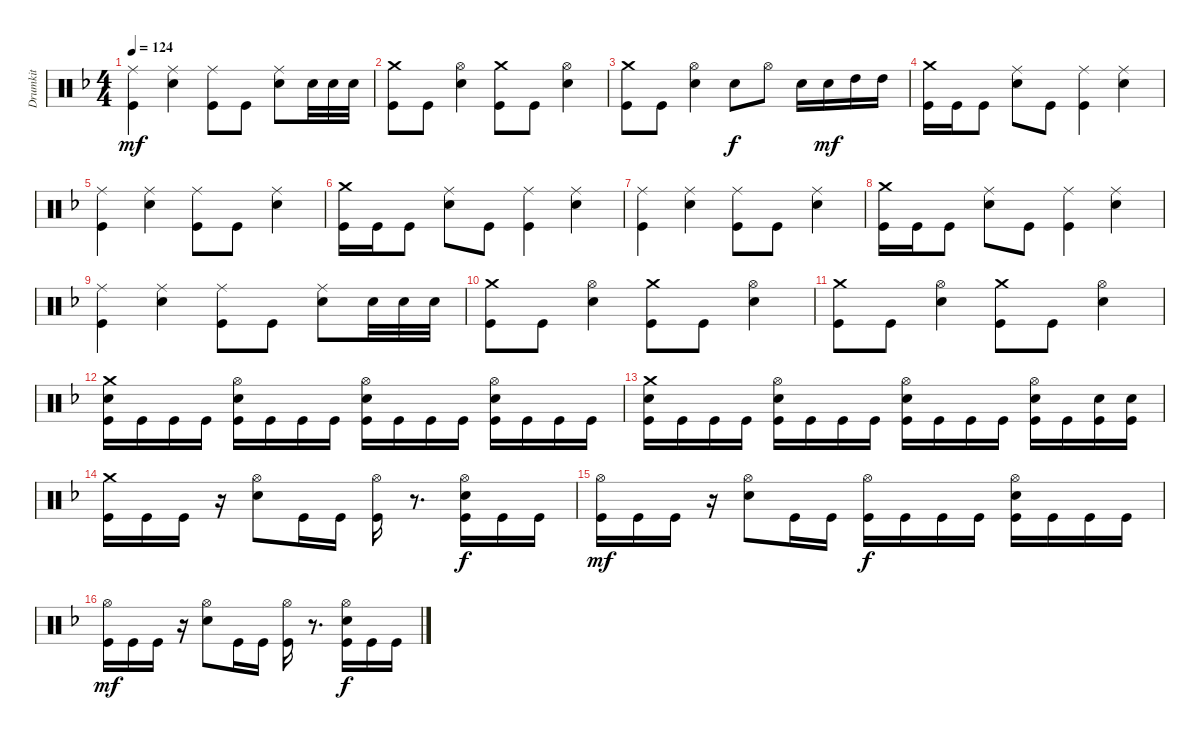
\track ("Drumkit" "Drumkit") {instrument percussion}
\staff {score}
\articulation defaults
\ts (4 4)
\tempo 124
\clef neutral
\ks dminor
("Kick (hit)" "Ride (middle)").4{dy mf} ("Snare (hit) 2" "Ride (middle)").4 ("Kick (hit)" "Ride (middle)").8 "Kick (hit)".8 ("Snare (hit) 2" "Ride (middle)").8 "Snare (hit) 2".32 "Snare (hit) 2".32 "Snare (hit) 2".32 |
("Kick (hit)" "Crash medium (hit)").8 "Kick (hit)".8 ("Snare (hit) 2" "Hi-Hat (open)").4 ("Kick (hit)" "Crash medium (hit)").8 "Kick (hit)".8 ("Snare (hit) 2" "Hi-Hat (open)").4 |
("Kick (hit)" "Crash medium (hit)").8 "Kick (hit)".8 ("Snare (hit) 2" "Hi-Hat (open)").4 "Snare (hit) 2".8{dy f} "Hi-Hat (open)".8 "Snare (hit) 2".16 "Snare (hit) 2".16{dy mf} "High Tom (hit)".16 "High Tom (hit)".16 |
("Kick (hit)" "Crash medium (hit)").16 "Kick (hit)".16 "Kick (hit)".8 ("Snare (hit) 2" "Ride (middle)").8 "Kick (hit)".8 ("Kick (hit)" "Ride (middle)").4 ("Snare (hit) 2" "Ride (middle)").4 |
("Kick (hit)" "Ride (middle)").4 ("Snare (hit) 2" "Ride (middle)").4 ("Kick (hit)" "Ride (middle)").8 "Kick (hit)".8 ("Snare (hit) 2" "Ride (middle)").4 |
("Kick (hit)" "Crash medium (hit)").16 "Kick (hit)".16 "Kick (hit)".8 ("Snare (hit) 2" "Ride (middle)").8 "Kick (hit)".8 ("Kick (hit)" "Ride (middle)").4 ("Snare (hit) 2" "Ride (middle)").4 |
("Kick (hit)" "Ride (middle)").4 ("Snare (hit) 2" "Ride (middle)").4 ("Kick (hit)" "Ride (middle)").8 "Kick (hit)".8 ("Snare (hit) 2" "Ride (middle)").4 |
("Kick (hit)" "Crash medium (hit)").16 "Kick (hit)".16 "Kick (hit)".8 ("Snare (hit) 2" "Ride (middle)").8 "Kick (hit)".8 ("Kick (hit)" "Ride (middle)").4 ("Snare (hit) 2" "Ride (middle)").4 |
("Kick (hit)" "Ride (middle)").4 ("Snare (hit) 2" "Ride (middle)").4 ("Kick (hit)" "Ride (middle)").8 "Kick (hit)".8 ("Snare (hit) 2" "Ride (middle)").8 "Snare (hit) 2".32 "Snare (hit) 2".32 "Snare (hit) 2".32 |
("Kick (hit)" "Crash medium (hit)").8 "Kick (hit)".8 ("Snare (hit) 2" "Hi-Hat (open)").4 ("Kick (hit)" "Crash medium (hit)").8 "Kick (hit)".8 ("Snare (hit) 2" "Hi-Hat (open)").4 |
("Kick (hit)" "Crash medium (hit)").8 "Kick (hit)".8 ("Snare (hit) 2" "Hi-Hat (open)").4 ("Kick (hit)" "Crash medium (hit)").8 "Kick (hit)".8 ("Snare (hit) 2" "Hi-Hat (open)").4 |
("Crash medium (hit)" "Kick (hit)" "Snare (hit) 2").16 "Kick (hit)".16 "Kick (hit)".16 "Kick (hit)".16 ("Kick (hit)" "Snare (hit) 2" "Hi-Hat (open)").16 "Kick (hit)".16 "Kick (hit)".16 "Kick (hit)".16 ("Kick (hit)" "Hi-Hat (open)" "Snare (hit) 2").16 "Kick (hit)".16 "Kick (hit)".16 "Kick (hit)".16 ("Kick (hit)" "Snare (hit) 2" "Hi-Hat (open)").16 "Kick (hit)".16 "Kick (hit)".16 "Kick (hit)".16 |
("Crash medium (hit)" "Kick (hit)" "Snare (hit) 2").16 "Kick (hit)".16 "Kick (hit)".16 "Kick (hit)".16 ("Kick (hit)" "Snare (hit) 2" "Hi-Hat (open)").16 "Kick (hit)".16 "Kick (hit)".16 "Kick (hit)".16 ("Kick (hit)" "Hi-Hat (open)" "Snare (hit) 2").16 "Kick (hit)".16 "Kick (hit)".16 "Kick (hit)".16 ("Kick (hit)" "Snare (hit) 2" "Hi-Hat (open)").16 "Kick (hit)".16 ("Kick (hit)" "Snare (hit) 2").16 ("Kick (hit)" "Snare (hit) 2").16 |
("Kick (hit)" "Crash medium (hit)").16 "Kick (hit)".16 "Kick (hit)".16 r.16 ("Snare (hit) 2" "Hi-Hat (open)").8 "Kick (hit)".16 "Kick (hit)".16 ("Kick (hit)" "Hi-Hat (open)").16 r.8{d} ("Kick (hit)" "Hi-Hat (open)" "Snare (hit) 2").16{dy f} "Kick (hit)".16 "Kick (hit)".16 |
("Kick (hit)" "Hi-Hat (open)").16{dy mf} "Kick (hit)".16 "Kick (hit)".16 r.16 ("Snare (hit) 2" "Hi-Hat (open)").8 "Kick (hit)".16 "Kick (hit)".16 ("Kick (hit)" "Hi-Hat (open)").16{dy f} "Kick (hit)".16 "Kick (hit)".16 "Kick (hit)".16 ("Kick (hit)" "Hi-Hat (open)" "Snare (hit) 2").16 "Kick (hit)".16 "Kick (hit)".16 "Kick (hit)".16 |
("Kick (hit)" "Hi-Hat (open)").16{dy mf} "Kick (hit)".16 "Kick (hit)".16 r.16 ("Snare (hit) 2" "Hi-Hat (open)").8 "Kick (hit)".16 "Kick (hit)".16 ("Kick (hit)" "Hi-Hat (open)").16 r.8{d} ("Kick (hit)" "Hi-Hat (open)" "Snare (hit) 2").16{dy f} "Kick (hit)".16 "Kick (hit)".16
